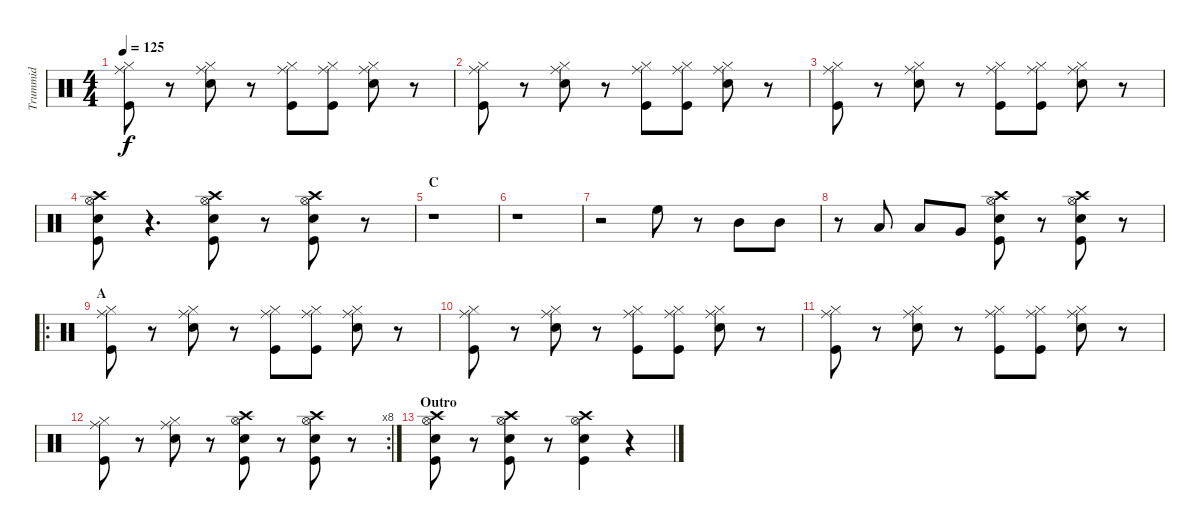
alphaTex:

\track ("Trummid" "Trummid") {instrument percussion}
\staff {score}
\articulation defaults
\ts (4 4)
\tempo 125
\clef neutral
\ks c
("Hi-Hat (closed)" "Ride (middle)" "Kick (hit)").8{dy f} r.8 ("Hi-Hat (closed)" "Ride (middle)" "Snare (hit) 2").8 r.8 ("Hi-Hat (closed)" "Ride (middle)" "Kick (hit)").8 ("Hi-Hat (closed)" "Ride (middle)" "Kick (hit)").8 ("Hi-Hat (closed)" "Ride (middle)" "Snare (hit) 2").8 r.8 |
("Hi-Hat (closed)" "Ride (middle)" "Kick (hit)").8 r.8 ("Hi-Hat (closed)" "Ride (middle)" "Snare (hit) 2").8 r.8 ("Hi-Hat (closed)" "Ride (middle)" "Kick (hit)").8 ("Hi-Hat (closed)" "Ride (middle)" "Kick (hit)").8 ("Hi-Hat (closed)" "Ride (middle)" "Snare (hit) 2").8 r.8 |
("Hi-Hat (closed)" "Ride (middle)" "Kick (hit)").8 r.8 ("Hi-Hat (closed)" "Ride (middle)" "Snare (hit) 2").8 r.8 ("Hi-Hat (closed)" "Ride (middle)" "Kick (hit)").8 ("Hi-Hat (closed)" "Ride (middle)" "Kick (hit)").8 ("Hi-Hat (closed)" "Ride (middle)" "Snare (hit) 2").8 r.8 |
("Crash high (hit)" "Hi-Hat (open)" "Snare (hit) 2" "Kick (hit)").8 r.4{d} ("Crash high (hit)" "Hi-Hat (open)" "Snare (hit) 2" "Kick (hit)").8 r.8 ("Crash high (hit)" "Hi-Hat (open)" "Snare (hit) 2" "Kick (hit)").8 r.8 |
\section ("" "C")
r.1 |
r.1 |
r.2 "High Floor Tom (hit)".8 r.8 "Mid Tom (hit)".8 "Mid Tom (hit)".8 |
r.8 "Low Tom (hit)".8 "Low Tom (hit)".8 "Very Low Tom (hit)".8 ("Crash high (hit)" "Hi-Hat (open)" "Snare (hit) 2" "Kick (hit)").8 r.8 ("Crash high (hit)" "Hi-Hat (open)" "Snare (hit) 2" "Kick (hit)").8 r.8 |
\ro
\section ("" "A")
("Hi-Hat (closed)" "Ride (middle)" "Kick (hit)").8 r.8 ("Hi-Hat (closed)" "Ride (middle)" "Snare (hit) 2").8 r.8 ("Hi-Hat (closed)" "Ride (middle)" "Kick (hit)").8 ("Hi-Hat (closed)" "Ride (middle)" "Kick (hit)").8 ("Hi-Hat (closed)" "Ride (middle)" "Snare (hit) 2").8 r.8 |
("Hi-Hat (closed)" "Ride (middle)" "Kick (hit)").8 r.8 ("Hi-Hat (closed)" "Ride (middle)" "Snare (hit) 2").8 r.8 ("Hi-Hat (closed)" "Ride (middle)" "Kick (hit)").8 ("Hi-Hat (closed)" "Ride (middle)" "Kick (hit)").8 ("Hi-Hat (closed)" "Ride (middle)" "Snare (hit) 2").8 r.8 |
("Hi-Hat (closed)" "Ride (middle)" "Kick (hit)").8 r.8 ("Hi-Hat (closed)" "Ride (middle)" "Snare (hit) 2").8 r.8 ("Hi-Hat (closed)" "Ride (middle)" "Kick (hit)").8 ("Hi-Hat (closed)" "Ride (middle)" "Kick (hit)").8 ("Hi-Hat (closed)" "Ride (middle)" "Snare (hit) 2").8 r.8 |
\rc 8
("Hi-Hat (closed)" "Ride (middle)" "Kick (hit)").8 r.8 ("Hi-Hat (closed)" "Ride (middle)" "Snare (hit) 2").8 r.8 ("Crash high (hit)" "Hi-Hat (open)" "Snare (hit) 2" "Kick (hit)").8 r.8 ("Crash high (hit)" "Hi-Hat (open)" "Snare (hit) 2" "Kick (hit)").8 r.8 |
\section ("" "Outro")
("Crash high (hit)" "Hi-Hat (open)" "Snare (hit) 2" "Kick (hit)").8 r.8 ("Crash high (hit)" "Hi-Hat (open)" "Snare (hit) 2" "Kick (hit)").8 r.8 ("Crash high (hit)" "Hi-Hat (open)" "Snare (hit) 2" "Kick (hit)").4 r.4
